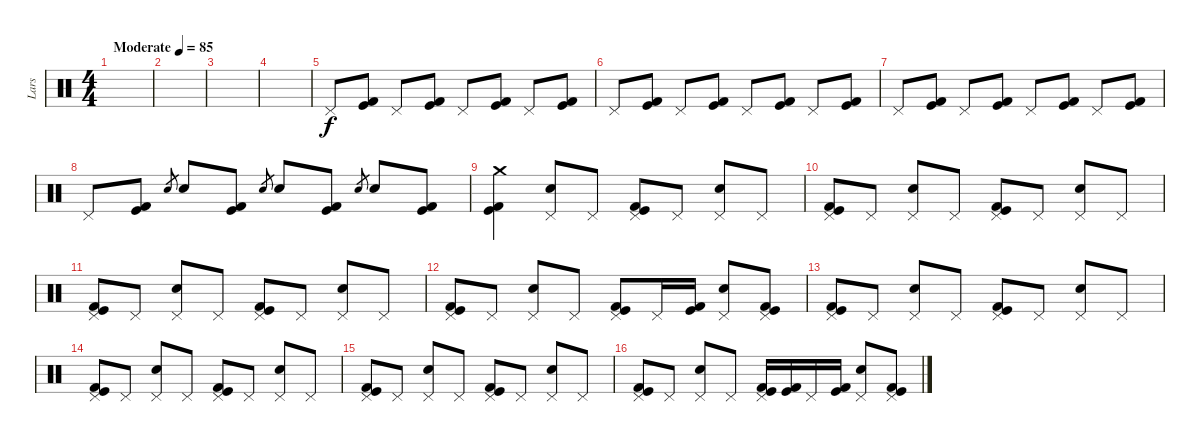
\track ("Lars" "Lars") {instrument percussion}
\staff {score}
\articulation defaults
\ts (4 4)
\tempo (85 "Moderate")
\clef neutral
\ks c
|
|
|
|
"Pedal Hi-Hat (hit)".8 ("Kick (hit)" "Kick (hit) 2").8 "Pedal Hi-Hat (hit)".8 ("Kick (hit)" "Kick (hit) 2").8 "Pedal Hi-Hat (hit)".8 ("Kick (hit)" "Kick (hit) 2").8 "Pedal Hi-Hat (hit)".8 ("Kick (hit)" "Kick (hit) 2").8 |
"Pedal Hi-Hat (hit)".8 ("Kick (hit)" "Kick (hit) 2").8 "Pedal Hi-Hat (hit)".8 ("Kick (hit)" "Kick (hit) 2").8 "Pedal Hi-Hat (hit)".8 ("Kick (hit)" "Kick (hit) 2").8 "Pedal Hi-Hat (hit)".8 ("Kick (hit)" "Kick (hit) 2").8 |
"Pedal Hi-Hat (hit)".8 ("Kick (hit)" "Kick (hit) 2").8 "Pedal Hi-Hat (hit)".8 ("Kick (hit)" "Kick (hit) 2").8 "Pedal Hi-Hat (hit)".8 ("Kick (hit)" "Kick (hit) 2").8 "Pedal Hi-Hat (hit)".8 ("Kick (hit)" "Kick (hit) 2").8 |
"Pedal Hi-Hat (hit)".8 ("Kick (hit)" "Kick (hit) 2").8 "Electric Snare (hit)".8{gr} "Electric Snare (hit)".8 ("Kick (hit)" "Kick (hit) 2").8 "Electric Snare (hit)".8{gr} "Electric Snare (hit)".8 ("Kick (hit)" "Kick (hit) 2").8 "Electric Snare (hit)".8{gr} "Electric Snare (hit)".8 ("Kick (hit)" "Kick (hit) 2").8 |
("Crash medium (hit)" "Kick (hit)" "Kick (hit) 2").4 ("Pedal Hi-Hat (hit)" "Electric Snare (hit)").8 "Pedal Hi-Hat (hit)".8 ("Pedal Hi-Hat (hit)" "Kick (hit)" "Kick (hit) 2").8 "Pedal Hi-Hat (hit)".8 ("Pedal Hi-Hat (hit)" "Electric Snare (hit)").8 "Pedal Hi-Hat (hit)".8 |
("Pedal Hi-Hat (hit)" "Kick (hit)" "Kick (hit) 2").8 "Pedal Hi-Hat (hit)".8 ("Pedal Hi-Hat (hit)" "Electric Snare (hit)").8 "Pedal Hi-Hat (hit)".8 ("Pedal Hi-Hat (hit)" "Kick (hit)" "Kick (hit) 2").8 "Pedal Hi-Hat (hit)".8 ("Pedal Hi-Hat (hit)" "Electric Snare (hit)").8 "Pedal Hi-Hat (hit)".8 |
("Pedal Hi-Hat (hit)" "Kick (hit)" "Kick (hit) 2").8 "Pedal Hi-Hat (hit)".8 ("Pedal Hi-Hat (hit)" "Electric Snare (hit)").8 "Pedal Hi-Hat (hit)".8 ("Pedal Hi-Hat (hit)" "Kick (hit)" "Kick (hit) 2").8 "Pedal Hi-Hat (hit)".8 ("Pedal Hi-Hat (hit)" "Electric Snare (hit)").8 "Pedal Hi-Hat (hit)".8 |
("Pedal Hi-Hat (hit)" "Kick (hit)" "Kick (hit) 2").8 "Pedal Hi-Hat (hit)".8 ("Pedal Hi-Hat (hit)" "Electric Snare (hit)").8 "Pedal Hi-Hat (hit)".8 ("Pedal Hi-Hat (hit)" "Kick (hit)" "Kick (hit) 2").8 "Pedal Hi-Hat (hit)".16 ("Kick (hit)" "Kick (hit) 2").16 ("Pedal Hi-Hat (hit)" "Electric Snare (hit)").8 ("Pedal Hi-Hat (hit)" "Kick (hit)" "Kick (hit) 2").8 |
("Pedal Hi-Hat (hit)" "Kick (hit)" "Kick (hit) 2").8 "Pedal Hi-Hat (hit)".8 ("Pedal Hi-Hat (hit)" "Electric Snare (hit)").8 "Pedal Hi-Hat (hit)".8 ("Pedal Hi-Hat (hit)" "Kick (hit)" "Kick (hit) 2").8 "Pedal Hi-Hat (hit)".8 ("Pedal Hi-Hat (hit)" "Electric Snare (hit)").8 "Pedal Hi-Hat (hit)".8 |
("Pedal Hi-Hat (hit)" "Kick (hit)" "Kick (hit) 2").8 "Pedal Hi-Hat (hit)".8 ("Pedal Hi-Hat (hit)" "Electric Snare (hit)").8 "Pedal Hi-Hat (hit)".8 ("Pedal Hi-Hat (hit)" "Kick (hit)" "Kick (hit) 2").8 "Pedal Hi-Hat (hit)".8 ("Pedal Hi-Hat (hit)" "Electric Snare (hit)").8 "Pedal Hi-Hat (hit)".8 |
("Pedal Hi-Hat (hit)" "Kick (hit)" "Kick (hit) 2").8 "Pedal Hi-Hat (hit)".8 ("Pedal Hi-Hat (hit)" "Electric Snare (hit)").8 "Pedal Hi-Hat (hit)".8 ("Pedal Hi-Hat (hit)" "Kick (hit)" "Kick (hit) 2").8 "Pedal Hi-Hat (hit)".8 ("Pedal Hi-Hat (hit)" "Electric Snare (hit)").8 "Pedal Hi-Hat (hit)".8 |
("Pedal Hi-Hat (hit)" "Kick (hit)" "Kick (hit) 2").8 "Pedal Hi-Hat (hit)".8 ("Pedal Hi-Hat (hit)" "Electric Snare (hit)").8 "Pedal Hi-Hat (hit)".8 ("Pedal Hi-Hat (hit)" "Kick (hit)" "Kick (hit) 2").16 ("Kick (hit)" "Kick (hit) 2").16 "Pedal Hi-Hat (hit)".16 ("Kick (hit)" "Kick (hit) 2").16 ("Pedal Hi-Hat (hit)" "Electric Snare (hit)").8 ("Pedal Hi-Hat (hit)" "Kick (hit)" "Kick (hit) 2").8
